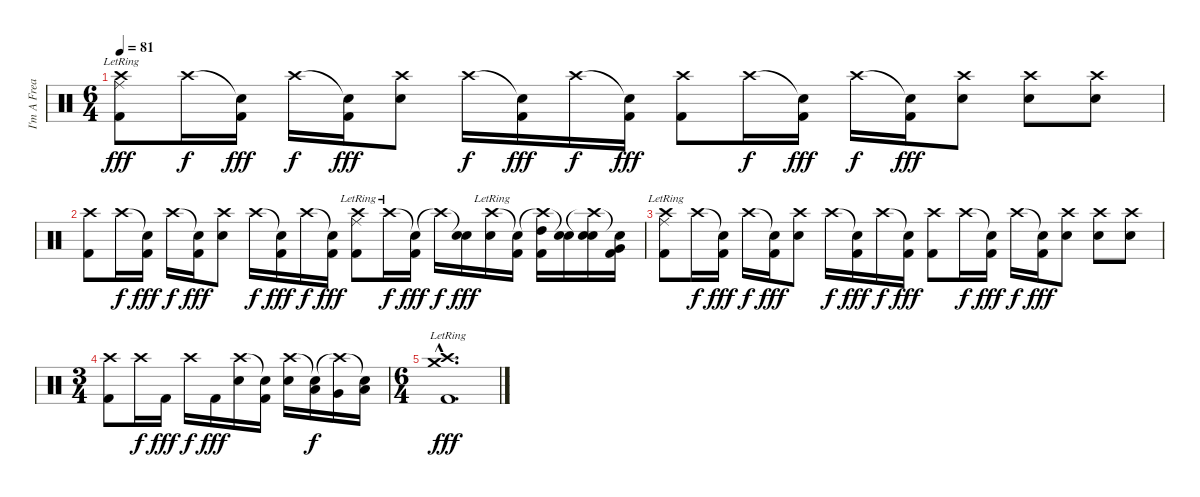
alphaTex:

\track ("I'm A Freak" "I'm A Frea") {instrument percussion}
\staff {score}
\articulation defaults
\ts (6 4)
\tempo 81
\clef neutral
\ks c
("Crash high (hit)" "Ride (middle)"{lr} "Kick (hit) 2").8{dy fff} "Crash high (hit)".16{dy f} ("Snare (hit)"{t} "Kick (hit) 2").16{dy fff} "Crash high (hit)".16{dy f} ("Snare (hit)"{t} "Kick (hit) 2").16{dy fff} ("Crash high (hit)" "Snare (hit) 2").8 "Crash high (hit)".16{dy f} ("Snare (hit)"{t} "Kick (hit) 2").16{dy fff} "Crash high (hit)".16{dy f} ("Snare (hit)"{t} "Kick (hit) 2").16{dy fff} ("Crash high (hit)" "Kick (hit) 2").8 "Crash high (hit)".16{dy f} ("Snare (hit)"{t} "Kick (hit) 2").16{dy fff} "Crash high (hit)".16{dy f} ("Snare (hit)"{t} "Kick (hit) 2").16{dy fff} ("Crash high (hit)" "Snare (hit) 2").8 ("Crash high (hit)" "Snare (hit) 2").8 ("Crash high (hit)" "Snare (hit) 2").8 |
("Crash high (hit)" "Kick (hit) 2").8 "Crash high (hit)".16{dy f} ("Snare (hit)"{t} "Kick (hit) 2").16{dy fff} "Crash high (hit)".16{dy f} ("Snare (hit)"{t} "Kick (hit) 2").16{dy fff} ("Crash high (hit)" "Snare (hit) 2").8 "Crash high (hit)".16{dy f} ("Snare (hit)"{t} "Kick (hit) 2").16{dy fff} "Crash high (hit)".16{dy f} ("Snare (hit)"{t} "Kick (hit) 2").16{dy fff} ("Crash high (hit)" "Ride (middle)"{lr} "Kick (hit) 2").8 "Crash high (hit)"{lr}.16{dy f} ("Snare (hit)"{t} "Kick (hit) 2").16{dy fff} "Crash high (hit)"{t}.16{dy f} ("Snare (hit)"{t} "Snare (hit) 2").16{dy fff} ("Crash high (hit)"{lr} "Snare (hit) 2").16 ("Snare (hit)"{t} "Kick (hit) 2").16 ("Crash high (hit)"{t} "High Tom (hit)" "Kick (hit) 2").16 ("Snare (hit)"{t} "Snare (hit) 2").16 ("Crash high (hit)"{t} "Snare (hit) 2" "Snare (hit) 2").16 ("Snare (hit)"{t} "Very Low Tom (hit)" "Kick (hit) 2").16 |
("Crash high (hit)" "Ride (middle)"{lr} "Kick (hit) 2").8 "Crash high (hit)".16{dy f} ("Snare (hit)"{t} "Kick (hit) 2").16{dy fff} "Crash high (hit)".16{dy f} ("Snare (hit)"{t} "Kick (hit) 2").16{dy fff} ("Crash high (hit)" "Snare (hit) 2").8 "Crash high (hit)".16{dy f} ("Snare (hit)"{t} "Kick (hit) 2").16{dy fff} "Crash high (hit)".16{dy f} ("Snare (hit)"{t} "Kick (hit) 2").16{dy fff} ("Crash high (hit)" "Kick (hit) 2").8 "Crash high (hit)".16{dy f} ("Snare (hit)"{t} "Kick (hit) 2").16{dy fff} "Crash high (hit)".16{dy f} ("Snare (hit)"{t} "Kick (hit) 2").16{dy fff} ("Crash high (hit)" "Snare (hit) 2").8 ("Crash high (hit)" "Snare (hit) 2").8 ("Crash high (hit)" "Snare (hit) 2").8 |
\ts (3 4)
("Crash high (hit)" "Kick (hit) 2").8 "Crash high (hit)".16{dy f} "Kick (hit) 2".16{dy fff} "Crash high (hit)".16{dy f} "Kick (hit) 2".16{dy fff} ("Crash high (hit)" "Snare (hit) 2").16 ("Snare (hit)"{t} "Kick (hit) 2").16 ("Crash high (hit)" "Snare (hit) 2").16 ("Snare (hit)"{t} "Low Tom (hit)").16{dy f} ("Crash high (hit)"{t} "Very Low Tom (hit)").16 ("Snare (hit)"{t} "Low Floor Tom (hit)").16 |
\ts (6 4)
("Crash high (hit)"{hac lr} "Crash medium (hit)"{hac lr} "Kick (hit) 2"{hac}).1{d dy fff}
